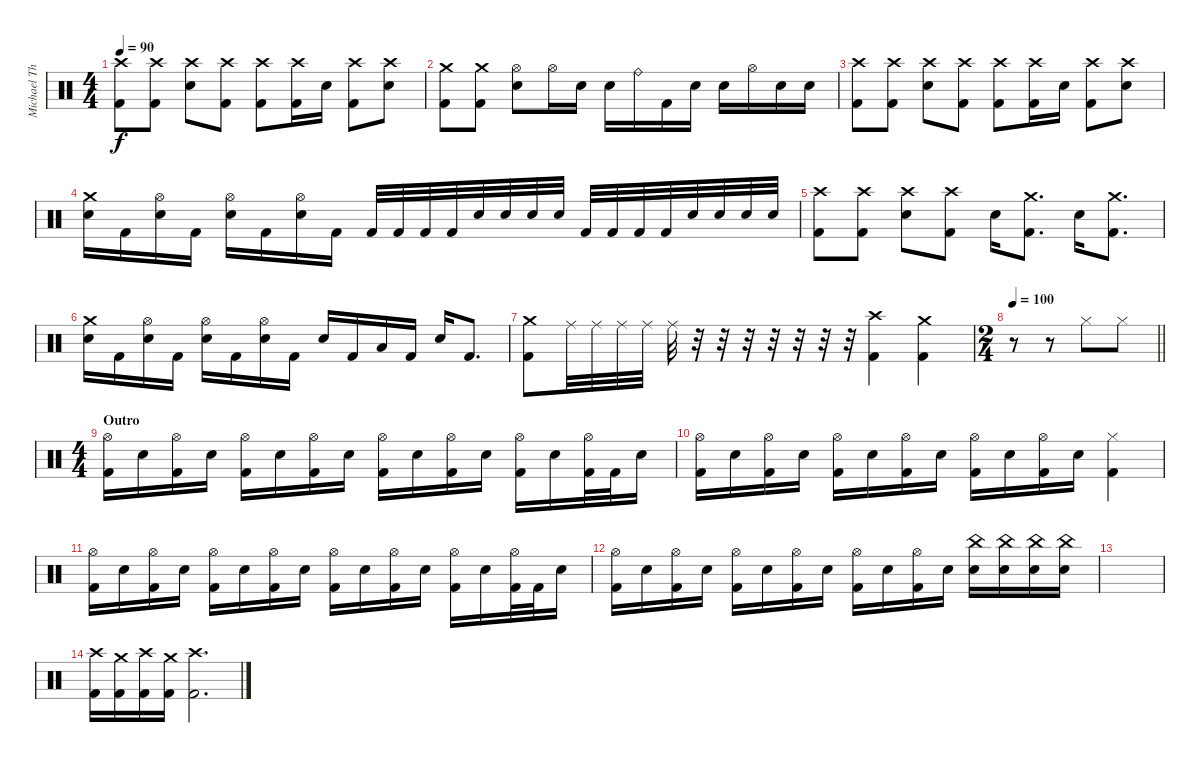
\track ("Michael Thomas" "Michael Th") {instrument percussion}
\staff {score}
\articulation defaults
\ts (4 4)
\tempo 90
\clef neutral
\ks c
("Crash high (hit)" "Kick (hit) 2").8{dy f} ("Crash high (hit)" "Kick (hit) 2").8 ("Crash high (hit)" "Electric Snare (hit)").8 ("Crash high (hit)" "Kick (hit) 2").8 ("Crash high (hit)" "Kick (hit) 2").8 ("Crash high (hit)" "Kick (hit) 2").16 "Electric Snare (hit)".16 ("Crash high (hit)" "Kick (hit) 2").8 ("Crash high (hit)" "Electric Snare (hit)").8 |
("Crash medium (hit)" "Kick (hit) 2").8 ("Crash medium (hit)" "Kick (hit) 2").8 ("Hi-Hat (open)" "Electric Snare (hit)").8 "Hi-Hat (open)".16 "Electric Snare (hit)".16 "Electric Snare (hit)".16 "Ride (bell)".16 "Kick (hit) 2".16 "Electric Snare (hit)".16 "Electric Snare (hit)".16 "Hi-Hat (open)".16 "Electric Snare (hit)".16 "Electric Snare (hit)".16 |
("Crash high (hit)" "Kick (hit) 2").8 ("Crash high (hit)" "Kick (hit) 2").8 ("Crash high (hit)" "Electric Snare (hit)").8 ("Crash high (hit)" "Kick (hit) 2").8 ("Crash high (hit)" "Kick (hit) 2").8 ("Crash high (hit)" "Kick (hit) 2").16 "Electric Snare (hit)".16 ("Crash high (hit)" "Kick (hit) 2").8 ("Crash high (hit)" "Electric Snare (hit)").8 |
("Crash medium (hit)" "Electric Snare (hit)").16 "Kick (hit) 2".16 ("Hi-Hat (open)" "Electric Snare (hit)").16 "Kick (hit) 2".16 ("Hi-Hat (open)" "Electric Snare (hit)").16 "Kick (hit) 2".16 ("Hi-Hat (open)" "Electric Snare (hit)").16 "Kick (hit) 2".16 "Kick (hit) 2".32 "Kick (hit) 2".32 "Kick (hit) 2".32 "Kick (hit) 2".32 "Electric Snare (hit)".32 "Electric Snare (hit)".32 "Electric Snare (hit)".32 "Electric Snare (hit)".32 "Kick (hit) 2".32 "Kick (hit) 2".32 "Kick (hit) 2".32 "Kick (hit) 2".32 "Electric Snare (hit)".32 "Electric Snare (hit)".32 "Electric Snare (hit)".32 "Electric Snare (hit)".32 |
("Crash high (hit)" "Kick (hit) 2").8 ("Crash high (hit)" "Kick (hit) 2").8 ("Crash high (hit)" "Electric Snare (hit)").8 ("Crash high (hit)" "Kick (hit) 2").8 "Electric Snare (hit)".16 ("Crash medium (hit)" "Kick (hit) 2").8{d} "Electric Snare (hit)".16 ("Crash medium (hit)" "Kick (hit) 2").8{d} |
("Crash medium (hit)" "Electric Snare (hit)").16 "Kick (hit) 2".16 ("Hi-Hat (open)" "Electric Snare (hit)").16 "Kick (hit) 2".16 ("Hi-Hat (open)" "Electric Snare (hit)").16 "Kick (hit) 2".16 ("Hi-Hat (open)" "Electric Snare (hit)").16 "Kick (hit) 2".16 "Electric Snare (hit)".16 "Kick (hit) 2".16 "Low Floor Tom (hit)".16 "Kick (hit) 2".16 "Electric Snare (hit)".16 "Kick (hit) 2".8{d} |
("Crash medium (hit)" "Kick (hit) 2").8 "Ride (middle)".32 "Ride (middle)".32 "Ride (middle)".32 "Ride (middle)".32 "Ride (middle)".32 r.32 r.32 r.32 r.32 r.32 r.32 r.32 ("Crash high (hit)" "Kick (hit) 2").4 ("Crash medium (hit)" "Kick (hit) 2").4 |
\ts (2 4)
\tempo 100
\barLineRight lightlight
r.8 r.8 "Hi-Hat (closed)".8 "Hi-Hat (closed)".8 |
\ts (4 4)
\section ("" "Outro")
("Hi-Hat (open)" "Kick (hit) 2").16 "Electric Snare (hit)".16 ("Hi-Hat (open)" "Kick (hit) 2").16 "Electric Snare (hit)".16 ("Hi-Hat (open)" "Kick (hit) 2").16 "Electric Snare (hit)".16 ("Hi-Hat (open)" "Kick (hit) 2").16 "Electric Snare (hit)".16 ("Hi-Hat (open)" "Kick (hit) 2").16 "Electric Snare (hit)".16 ("Hi-Hat (open)" "Kick (hit) 2").16 "Electric Snare (hit)".16 ("Hi-Hat (open)" "Kick (hit) 2").16 "Electric Snare (hit)".16 ("Hi-Hat (open)" "Kick (hit) 2").32 "Kick (hit) 2".32 "Electric Snare (hit)".16 |
("Hi-Hat (open)" "Kick (hit) 2").16 "Electric Snare (hit)".16 ("Hi-Hat (open)" "Kick (hit) 2").16 "Electric Snare (hit)".16 ("Hi-Hat (open)" "Kick (hit) 2").16 "Electric Snare (hit)".16 ("Hi-Hat (open)" "Kick (hit) 2").16 "Electric Snare (hit)".16 ("Hi-Hat (open)" "Kick (hit) 2").16 "Electric Snare (hit)".16 ("Hi-Hat (open)" "Kick (hit) 2").16 "Electric Snare (hit)".16 ("Hi-Hat (closed)" "Kick (hit) 2").4 |
("Hi-Hat (open)" "Kick (hit) 2").16 "Electric Snare (hit)".16 ("Hi-Hat (open)" "Kick (hit) 2").16 "Electric Snare (hit)".16 ("Hi-Hat (open)" "Kick (hit) 2").16 "Electric Snare (hit)".16 ("Hi-Hat (open)" "Kick (hit) 2").16 "Electric Snare (hit)".16 ("Hi-Hat (open)" "Kick (hit) 2").16 "Electric Snare (hit)".16 ("Hi-Hat (open)" "Kick (hit) 2").16 "Electric Snare (hit)".16 ("Hi-Hat (open)" "Kick (hit) 2").16 "Electric Snare (hit)".16 ("Hi-Hat (open)" "Kick (hit) 2").32 "Kick (hit) 2".32 "Electric Snare (hit)".16 |
("Hi-Hat (open)" "Kick (hit) 2").16 "Electric Snare (hit)".16 ("Hi-Hat (open)" "Kick (hit) 2").16 "Electric Snare (hit)".16 ("Hi-Hat (open)" "Kick (hit) 2").16 "Electric Snare (hit)".16 ("Hi-Hat (open)" "Kick (hit) 2").16 "Electric Snare (hit)".16 ("Hi-Hat (open)" "Kick (hit) 2").16 "Electric Snare (hit)".16 ("Hi-Hat (open)" "Kick (hit) 2").16 "Electric Snare (hit)".16 ("China (hit)" "Electric Snare (hit)").16 ("China (hit)" "Electric Snare (hit)").16 ("China (hit)" "Electric Snare (hit)").16 ("China (hit)" "Electric Snare (hit)").16 |
|
("Crash high (hit)" "Kick (hit) 2").16 ("Crash medium (hit)" "Kick (hit) 2").16 ("Crash high (hit)" "Kick (hit) 2").16 ("Crash medium (hit)" "Kick (hit) 2").16 ("Crash high (hit)" "Kick (hit) 2").2{d}
